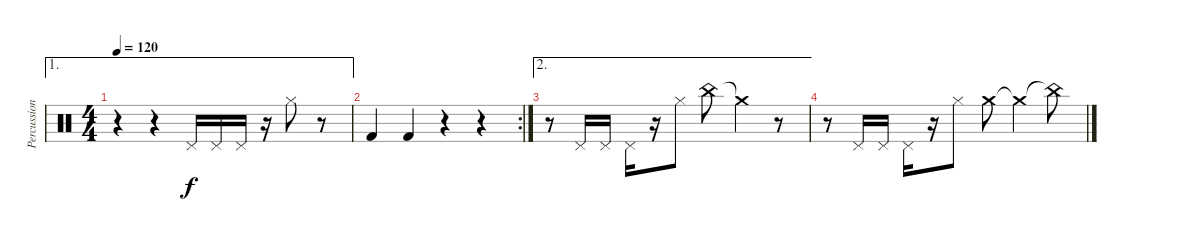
\track ("Percussions" "Percussion") {instrument percussion}
\staff {score}
\articulation defaults
\ae 1
\ts (4 4)
\tempo 120
\clef neutral
\ks c
r.4{dy f} r.4 "Pedal Hi-Hat (hit)".16 "Pedal Hi-Hat (hit)".16 "Pedal Hi-Hat (hit)".16 r.16 "Hi-Hat (closed)".8 r.8 |
\rc 2 "Kick (hit) 2".4 "Kick (hit) 2".4
r.4 r.4 |
\ae 2
r.8 "Pedal Hi-Hat (hit)".16 "Pedal Hi-Hat (hit)".16 "Pedal Hi-Hat (hit)".16 r.16 "Hi-Hat (closed)".8 "China (hit)".8 "Crash medium (hit)"{t}.4 r.8 |
r.8 "Pedal Hi-Hat (hit)".16 "Pedal Hi-Hat (hit)".16 "Pedal Hi-Hat (hit)".16 r.16 "Hi-Hat (closed)".8 "Crash medium (hit)".8 "Crash medium (hit)"{t}.4 "China (hit)"{t}.8
